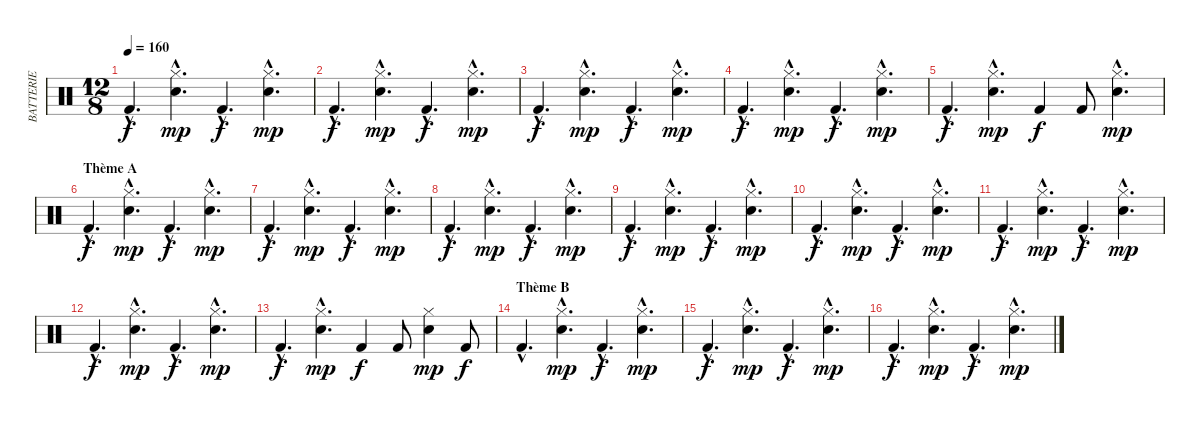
\track ("BATTERIE" "BATTERIE") {instrument percussion}
\staff {score}
\articulation defaults
\ts (12 8)
\tempo 160
\clef neutral
\ks c "Kick (hit) 2"{hac}.4{d dy f}
("Hi-Hat (closed)"{hac} "Snare (hit) 2"{hac}).4{d dy mp} "Kick (hit) 2"{hac}.4{d dy f} ("Hi-Hat (closed)"{hac} "Snare (hit) 2"{hac}).4{d dy mp} |
"Kick (hit) 2"{hac}.4{d dy f} ("Hi-Hat (closed)"{hac} "Snare (hit) 2"{hac}).4{d dy mp} "Kick (hit) 2"{hac}.4{d dy f} ("Hi-Hat (closed)"{hac} "Snare (hit) 2"{hac}).4{d dy mp} |
"Kick (hit) 2"{hac}.4{d dy f} ("Hi-Hat (closed)"{hac} "Snare (hit) 2"{hac}).4{d dy mp} "Kick (hit) 2"{hac}.4{d dy f} ("Hi-Hat (closed)"{hac} "Snare (hit) 2"{hac}).4{d dy mp} |
"Kick (hit) 2"{hac}.4{d dy f} ("Hi-Hat (closed)"{hac} "Snare (hit) 2"{hac}).4{d dy mp} "Kick (hit) 2"{hac}.4{d dy f} ("Hi-Hat (closed)"{hac} "Snare (hit) 2"{hac}).4{d dy mp} |
"Kick (hit) 2"{hac}.4{d dy f} ("Hi-Hat (closed)"{hac} "Snare (hit) 2"{hac}).4{d dy mp} "Kick (hit) 2".4{dy f} "Kick (hit) 2".8 ("Hi-Hat (closed)"{hac} "Snare (hit) 2"{hac}).4{d dy mp} |
\section ("" "Thème A")
"Kick (hit) 2"{hac}.4{d dy f} ("Hi-Hat (closed)"{hac} "Snare (hit) 2"{hac}).4{d dy mp} "Kick (hit) 2"{hac}.4{d dy f} ("Hi-Hat (closed)"{hac} "Snare (hit) 2"{hac}).4{d dy mp} |
"Kick (hit) 2"{hac}.4{d dy f} ("Hi-Hat (closed)"{hac} "Snare (hit) 2"{hac}).4{d dy mp} "Kick (hit) 2"{hac}.4{d dy f} ("Hi-Hat (closed)"{hac} "Snare (hit) 2"{hac}).4{d dy mp} |
"Kick (hit) 2"{hac}.4{d dy f} ("Hi-Hat (closed)"{hac} "Snare (hit) 2"{hac}).4{d dy mp} "Kick (hit) 2"{hac}.4{d dy f} ("Hi-Hat (closed)"{hac} "Snare (hit) 2"{hac}).4{d dy mp} |
"Kick (hit) 2"{hac}.4{d dy f} ("Hi-Hat (closed)"{hac} "Snare (hit) 2"{hac}).4{d dy mp} "Kick (hit) 2"{hac}.4{d dy f} ("Hi-Hat (closed)"{hac} "Snare (hit) 2"{hac}).4{d dy mp} |
"Kick (hit) 2"{hac}.4{d dy f} ("Hi-Hat (closed)"{hac} "Snare (hit) 2"{hac}).4{d dy mp} "Kick (hit) 2"{hac}.4{d dy f} ("Hi-Hat (closed)"{hac} "Snare (hit) 2"{hac}).4{d dy mp} |
"Kick (hit) 2"{hac}.4{d dy f} ("Hi-Hat (closed)"{hac} "Snare (hit) 2"{hac}).4{d dy mp} "Kick (hit) 2"{hac}.4{d dy f} ("Hi-Hat (closed)"{hac} "Snare (hit) 2"{hac}).4{d dy mp} |
"Kick (hit) 2"{hac}.4{d dy f} ("Hi-Hat (closed)"{hac} "Snare (hit) 2"{hac}).4{d dy mp} "Kick (hit) 2"{hac}.4{d dy f} ("Hi-Hat (closed)"{hac} "Snare (hit) 2"{hac}).4{d dy mp} |
"Kick (hit) 2"{hac}.4{d dy f} ("Hi-Hat (closed)"{hac} "Snare (hit) 2"{hac}).4{d dy mp} "Kick (hit) 2".4{dy f} "Kick (hit) 2".8 ("Hi-Hat (closed)" "Snare (hit) 2").4{dy mp} "Kick (hit) 2".8{dy f} |
\section ("" "Thème B")
"Kick (hit) 2"{hac}.4{d} ("Hi-Hat (closed)"{hac} "Snare (hit) 2"{hac}).4{d dy mp} "Kick (hit) 2"{hac}.4{d dy f} ("Hi-Hat (closed)"{hac} "Snare (hit) 2"{hac}).4{d dy mp} |
"Kick (hit) 2"{hac}.4{d dy f} ("Hi-Hat (closed)"{hac} "Snare (hit) 2"{hac}).4{d dy mp} "Kick (hit) 2"{hac}.4{d dy f} ("Hi-Hat (closed)"{hac} "Snare (hit) 2"{hac}).4{d dy mp} |
"Kick (hit) 2"{hac}.4{d dy f} ("Hi-Hat (closed)"{hac} "Snare (hit) 2"{hac}).4{d dy mp} "Kick (hit) 2"{hac}.4{d dy f} ("Hi-Hat (closed)"{hac} "Snare (hit) 2"{hac}).4{d dy mp}
